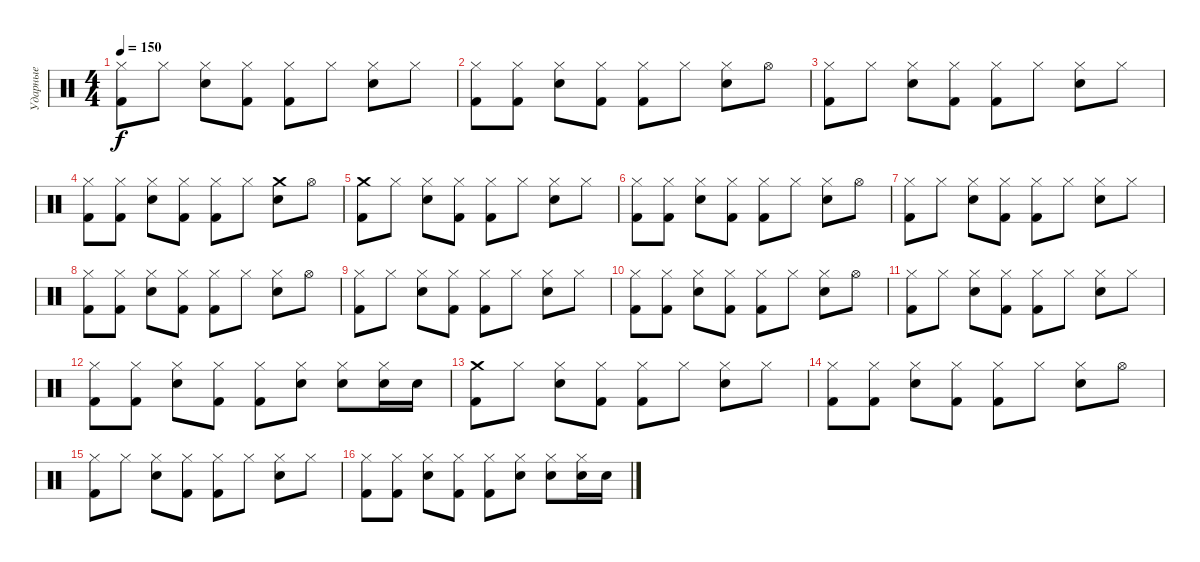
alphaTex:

\track ("Ударные" "Ударные") {instrument percussion}
\staff {score}
\articulation defaults
\ts (4 4)
\tempo 150
\clef neutral
\ks c
("Hi-Hat (closed)" "Kick (hit) 2").8{dy f} "Hi-Hat (closed)".8 ("Hi-Hat (closed)" "Snare (hit) 2").8 ("Hi-Hat (closed)" "Kick (hit) 2").8 ("Hi-Hat (closed)" "Kick (hit) 2").8 "Hi-Hat (closed)".8 ("Hi-Hat (closed)" "Snare (hit) 2").8 "Hi-Hat (closed)".8 |
("Hi-Hat (closed)" "Kick (hit) 2").8 ("Hi-Hat (closed)" "Kick (hit) 2").8 ("Hi-Hat (closed)" "Snare (hit) 2").8 ("Hi-Hat (closed)" "Kick (hit) 2").8 ("Hi-Hat (closed)" "Kick (hit) 2").8 "Hi-Hat (closed)".8 ("Hi-Hat (closed)" "Snare (hit) 2").8 "Hi-Hat (open)".8 |
("Hi-Hat (closed)" "Kick (hit) 2").8 "Hi-Hat (closed)".8 ("Hi-Hat (closed)" "Snare (hit) 2").8 ("Hi-Hat (closed)" "Kick (hit) 2").8 ("Hi-Hat (closed)" "Kick (hit) 2").8 "Hi-Hat (closed)".8 ("Hi-Hat (closed)" "Snare (hit) 2").8 "Hi-Hat (closed)".8 |
("Hi-Hat (closed)" "Kick (hit) 2").8 ("Hi-Hat (closed)" "Kick (hit) 2").8 ("Hi-Hat (closed)" "Snare (hit) 2").8 ("Hi-Hat (closed)" "Kick (hit) 2").8 ("Hi-Hat (closed)" "Kick (hit) 2").8 "Hi-Hat (closed)".8 ("Crash medium (hit)" "Snare (hit) 2").8 "Hi-Hat (open)".8 |
("Crash medium (hit)" "Kick (hit) 2").8 "Hi-Hat (closed)".8 ("Hi-Hat (closed)" "Snare (hit) 2").8 ("Hi-Hat (closed)" "Kick (hit) 2").8 ("Hi-Hat (closed)" "Kick (hit) 2").8 "Hi-Hat (closed)".8 ("Hi-Hat (closed)" "Snare (hit) 2").8 "Hi-Hat (closed)".8 |
("Hi-Hat (closed)" "Kick (hit) 2").8 ("Hi-Hat (closed)" "Kick (hit) 2").8 ("Hi-Hat (closed)" "Snare (hit) 2").8 ("Hi-Hat (closed)" "Kick (hit) 2").8 ("Hi-Hat (closed)" "Kick (hit) 2").8 "Hi-Hat (closed)".8 ("Hi-Hat (closed)" "Snare (hit) 2").8 "Hi-Hat (open)".8 |
("Hi-Hat (closed)" "Kick (hit) 2").8 "Hi-Hat (closed)".8 ("Hi-Hat (closed)" "Snare (hit) 2").8 ("Hi-Hat (closed)" "Kick (hit) 2").8 ("Hi-Hat (closed)" "Kick (hit) 2").8 "Hi-Hat (closed)".8 ("Hi-Hat (closed)" "Snare (hit) 2").8 "Hi-Hat (closed)".8 |
("Hi-Hat (closed)" "Kick (hit) 2").8 ("Hi-Hat (closed)" "Kick (hit) 2").8 ("Hi-Hat (closed)" "Snare (hit) 2").8 ("Hi-Hat (closed)" "Kick (hit) 2").8 ("Hi-Hat (closed)" "Kick (hit) 2").8 "Hi-Hat (closed)".8 ("Hi-Hat (closed)" "Snare (hit) 2").8 "Hi-Hat (open)".8 |
("Hi-Hat (closed)" "Kick (hit) 2").8 "Hi-Hat (closed)".8 ("Hi-Hat (closed)" "Snare (hit) 2").8 ("Hi-Hat (closed)" "Kick (hit) 2").8 ("Hi-Hat (closed)" "Kick (hit) 2").8 "Hi-Hat (closed)".8 ("Hi-Hat (closed)" "Snare (hit) 2").8 "Hi-Hat (closed)".8 |
("Hi-Hat (closed)" "Kick (hit) 2").8 ("Hi-Hat (closed)" "Kick (hit) 2").8 ("Hi-Hat (closed)" "Snare (hit) 2").8 ("Hi-Hat (closed)" "Kick (hit) 2").8 ("Hi-Hat (closed)" "Kick (hit) 2").8 "Hi-Hat (closed)".8 ("Hi-Hat (closed)" "Snare (hit) 2").8 "Hi-Hat (open)".8 |
("Hi-Hat (closed)" "Kick (hit) 2").8 "Hi-Hat (closed)".8 ("Hi-Hat (closed)" "Snare (hit) 2").8 ("Hi-Hat (closed)" "Kick (hit) 2").8 ("Hi-Hat (closed)" "Kick (hit) 2").8 "Hi-Hat (closed)".8 ("Hi-Hat (closed)" "Snare (hit) 2").8 "Hi-Hat (closed)".8 |
("Hi-Hat (closed)" "Kick (hit) 2").8 ("Hi-Hat (closed)" "Kick (hit) 2").8 ("Hi-Hat (closed)" "Snare (hit) 2").8 ("Hi-Hat (closed)" "Kick (hit) 2").8 ("Hi-Hat (closed)" "Kick (hit) 2").8 ("Hi-Hat (closed)" "Snare (hit) 2").8 ("Hi-Hat (closed)" "Snare (hit) 2").8 ("Hi-Hat (closed)" "Snare (hit) 2").16 "Snare (hit) 2".16 |
("Crash medium (hit)" "Kick (hit) 2").8 "Hi-Hat (closed)".8 ("Hi-Hat (closed)" "Snare (hit) 2").8 ("Hi-Hat (closed)" "Kick (hit) 2").8 ("Hi-Hat (closed)" "Kick (hit) 2").8 "Hi-Hat (closed)".8 ("Hi-Hat (closed)" "Snare (hit) 2").8 "Hi-Hat (closed)".8 |
("Hi-Hat (closed)" "Kick (hit) 2").8 ("Hi-Hat (closed)" "Kick (hit) 2").8 ("Hi-Hat (closed)" "Snare (hit) 2").8 ("Hi-Hat (closed)" "Kick (hit) 2").8 ("Hi-Hat (closed)" "Kick (hit) 2").8 "Hi-Hat (closed)".8 ("Hi-Hat (closed)" "Snare (hit) 2").8 "Hi-Hat (open)".8 |
("Hi-Hat (closed)" "Kick (hit) 2").8 "Hi-Hat (closed)".8 ("Hi-Hat (closed)" "Snare (hit) 2").8 ("Hi-Hat (closed)" "Kick (hit) 2").8 ("Hi-Hat (closed)" "Kick (hit) 2").8 "Hi-Hat (closed)".8 ("Hi-Hat (closed)" "Snare (hit) 2").8 "Hi-Hat (closed)".8 |
("Hi-Hat (closed)" "Kick (hit) 2").8 ("Hi-Hat (closed)" "Kick (hit) 2").8 ("Hi-Hat (closed)" "Snare (hit) 2").8 ("Hi-Hat (closed)" "Kick (hit) 2").8 ("Hi-Hat (closed)" "Kick (hit) 2").8 ("Hi-Hat (closed)" "Snare (hit) 2").8 ("Hi-Hat (closed)" "Snare (hit) 2").8 ("Hi-Hat (closed)" "Snare (hit) 2").16 "Snare (hit) 2".16
